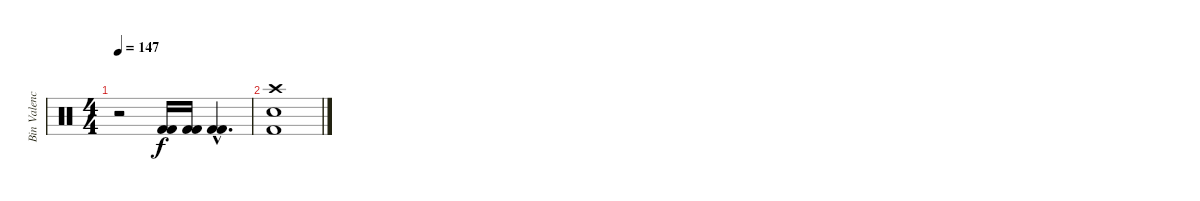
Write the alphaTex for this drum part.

\track ("Bin Valencia (Bateria)" "Bin Valenc") {instrument percussion}
\staff {score}
\articulation defaults
\ts (4 4)
\tempo 147
\clef neutral
\ks c
r.2{dy f} ("Kick (hit) 2" "Kick (hit) 2").16 ("Kick (hit) 2" "Kick (hit) 2").16 ("Kick (hit) 2"{hac} "Kick (hit) 2"{hac}).4{d} |
("Crash high (hit)" "Snare (hit) 2" "Kick (hit) 2").1
